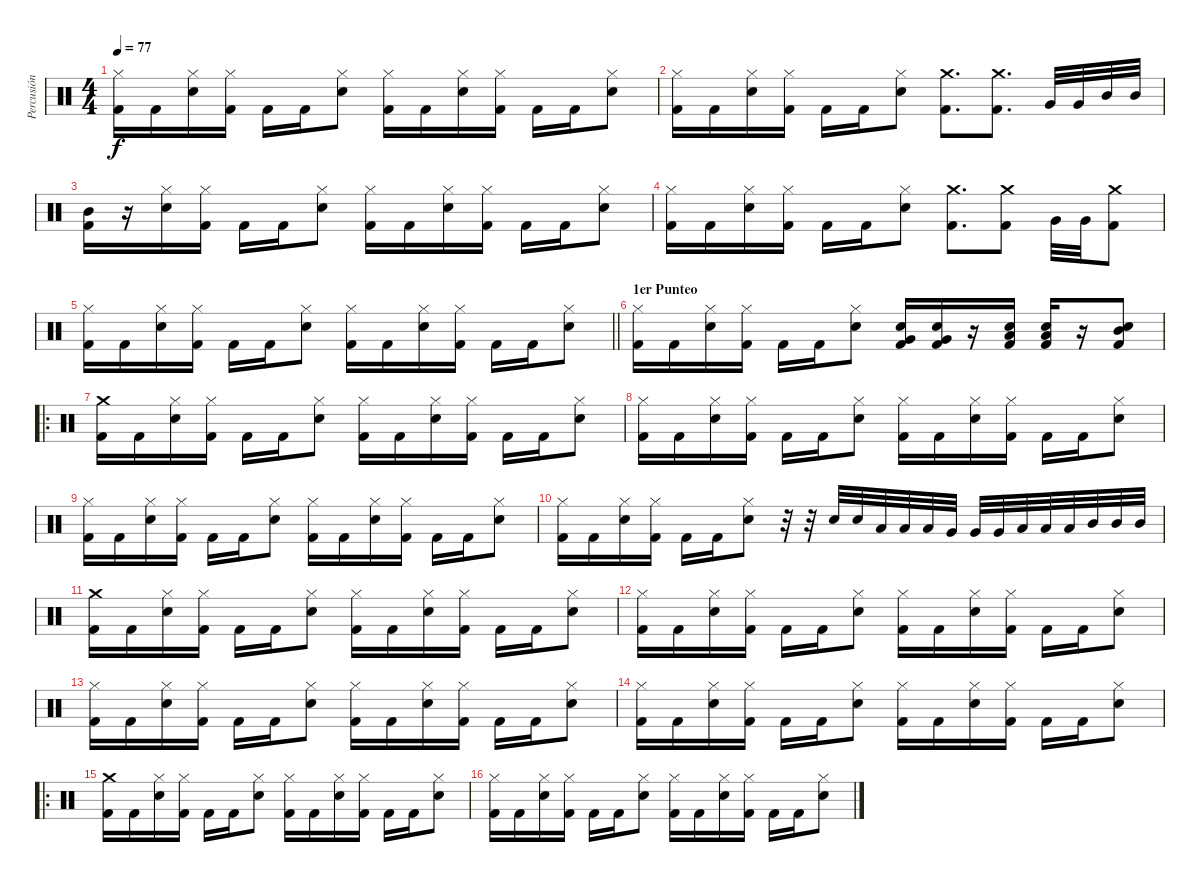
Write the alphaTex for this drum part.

\track ("Percusión" "Percusión") {instrument percussion}
\staff {score}
\articulation defaults
\ts (4 4)
\tempo 77
\clef neutral
\ks c
("Kick (hit) 2" "Hi-Hat (closed)").16{dy f} "Kick (hit) 2".16 ("Electric Snare (hit)" "Hi-Hat (closed)").16 ("Kick (hit) 2" "Hi-Hat (closed)").16 "Kick (hit) 2".16 "Kick (hit) 2".16 ("Electric Snare (hit)" "Hi-Hat (closed)").8 ("Kick (hit) 2" "Hi-Hat (closed)").16 "Kick (hit) 2".16 ("Electric Snare (hit)" "Hi-Hat (closed)").16 ("Kick (hit) 2" "Hi-Hat (closed)").16 "Kick (hit) 2".16 "Kick (hit) 2".16 ("Electric Snare (hit)" "Hi-Hat (closed)").8 |
("Kick (hit) 2" "Hi-Hat (closed)").16 "Kick (hit) 2".16 ("Electric Snare (hit)" "Hi-Hat (closed)").16 ("Kick (hit) 2" "Hi-Hat (closed)").16 "Kick (hit) 2".16 "Kick (hit) 2".16 ("Electric Snare (hit)" "Hi-Hat (closed)").8 ("Kick (hit) 2" "Crash medium (hit)").8{d} ("Kick (hit) 2" "Crash medium (hit)").8{d} "Very Low Tom (hit)".32 "Very Low Tom (hit)".32 "Mid Tom (hit)".32 "Mid Tom (hit)".32 |
("Kick (hit) 2" "Mid Tom (hit)").16 r.16 ("Electric Snare (hit)" "Hi-Hat (closed)").16 ("Kick (hit) 2" "Hi-Hat (closed)").16 "Kick (hit) 2".16 "Kick (hit) 2".16 ("Electric Snare (hit)" "Hi-Hat (closed)").8 ("Kick (hit) 2" "Hi-Hat (closed)").16 "Kick (hit) 2".16 ("Electric Snare (hit)" "Hi-Hat (closed)").16 ("Kick (hit) 2" "Hi-Hat (closed)").16 "Kick (hit) 2".16 "Kick (hit) 2".16 ("Electric Snare (hit)" "Hi-Hat (closed)").8 |
("Kick (hit) 2" "Hi-Hat (closed)").16 "Kick (hit) 2".16 ("Electric Snare (hit)" "Hi-Hat (closed)").16 ("Kick (hit) 2" "Hi-Hat (closed)").16 "Kick (hit) 2".16 "Kick (hit) 2".16 ("Electric Snare (hit)" "Hi-Hat (closed)").8 ("Kick (hit) 2" "Crash medium (hit)").8{d} ("Kick (hit) 2" "Crash medium (hit)").8 "Very Low Tom (hit)".32 "Very Low Tom (hit)".32 ("Kick (hit) 2" "Crash medium (hit)").8 |
\barLineRight lightlight
("Kick (hit) 2" "Hi-Hat (closed)").16 "Kick (hit) 2".16 ("Electric Snare (hit)" "Hi-Hat (closed)").16 ("Kick (hit) 2" "Hi-Hat (closed)").16 "Kick (hit) 2".16 "Kick (hit) 2".16 ("Electric Snare (hit)" "Hi-Hat (closed)").8 ("Kick (hit) 2" "Hi-Hat (closed)").16 "Kick (hit) 2".16 ("Electric Snare (hit)" "Hi-Hat (closed)").16 ("Kick (hit) 2" "Hi-Hat (closed)").16 "Kick (hit) 2".16 "Kick (hit) 2".16 ("Electric Snare (hit)" "Hi-Hat (closed)").8 |
\section ("" "1er Punteo")
("Kick (hit) 2" "Hi-Hat (closed)").16 "Kick (hit) 2".16 ("Electric Snare (hit)" "Hi-Hat (closed)").16 ("Kick (hit) 2" "Hi-Hat (closed)").16 "Kick (hit) 2".16 "Kick (hit) 2".16 ("Electric Snare (hit)" "Hi-Hat (closed)").8 ("Kick (hit) 2" "Electric Snare (hit)" "Very Low Tom (hit)").16 ("Kick (hit) 2" "Electric Snare (hit)" "Very Low Tom (hit)").16 r.16 ("Kick (hit) 2" "Electric Snare (hit)" "Low Tom (hit)").16 ("Kick (hit) 2" "Electric Snare (hit)" "Low Tom (hit)").16 r.16 ("Electric Snare (hit)" "Kick (hit) 2" "Mid Tom (hit)").8 |
\ro
("Kick (hit) 2" "Crash medium (hit)").16 "Kick (hit) 2".16 ("Electric Snare (hit)" "Hi-Hat (closed)").16 ("Kick (hit) 2" "Hi-Hat (closed)").16 "Kick (hit) 2".16 "Kick (hit) 2".16 ("Electric Snare (hit)" "Hi-Hat (closed)").8 ("Kick (hit) 2" "Hi-Hat (closed)").16 "Kick (hit) 2".16 ("Electric Snare (hit)" "Hi-Hat (closed)").16 ("Kick (hit) 2" "Hi-Hat (closed)").16 "Kick (hit) 2".16 "Kick (hit) 2".16 ("Electric Snare (hit)" "Hi-Hat (closed)").8 |
("Kick (hit) 2" "Hi-Hat (closed)").16 "Kick (hit) 2".16 ("Electric Snare (hit)" "Hi-Hat (closed)").16 ("Kick (hit) 2" "Hi-Hat (closed)").16 "Kick (hit) 2".16 "Kick (hit) 2".16 ("Electric Snare (hit)" "Hi-Hat (closed)").8 ("Kick (hit) 2" "Hi-Hat (closed)").16 "Kick (hit) 2".16 ("Electric Snare (hit)" "Hi-Hat (closed)").16 ("Kick (hit) 2" "Hi-Hat (closed)").16 "Kick (hit) 2".16 "Kick (hit) 2".16 ("Electric Snare (hit)" "Hi-Hat (closed)").8 |
("Kick (hit) 2" "Hi-Hat (closed)").16 "Kick (hit) 2".16 ("Electric Snare (hit)" "Hi-Hat (closed)").16 ("Kick (hit) 2" "Hi-Hat (closed)").16 "Kick (hit) 2".16 "Kick (hit) 2".16 ("Electric Snare (hit)" "Hi-Hat (closed)").8 ("Kick (hit) 2" "Hi-Hat (closed)").16 "Kick (hit) 2".16 ("Electric Snare (hit)" "Hi-Hat (closed)").16 ("Kick (hit) 2" "Hi-Hat (closed)").16 "Kick (hit) 2".16 "Kick (hit) 2".16 ("Electric Snare (hit)" "Hi-Hat (closed)").8 |
("Kick (hit) 2" "Hi-Hat (closed)").16 "Kick (hit) 2".16 ("Electric Snare (hit)" "Hi-Hat (closed)").16 ("Kick (hit) 2" "Hi-Hat (closed)").16 "Kick (hit) 2".16 "Kick (hit) 2".16 ("Electric Snare (hit)" "Hi-Hat (closed)").8 r.32 r.32 "Electric Snare (hit)".32 "Electric Snare (hit)".32 "Low Floor Tom (hit)".32 "Low Floor Tom (hit)".32 "Low Floor Tom (hit)".32 "Very Low Tom (hit)".32 "Very Low Tom (hit)".32 "Very Low Tom (hit)".32 "Low Tom (hit)".32 "Low Tom (hit)".32 "Low Tom (hit)".32 "Mid Tom (hit)".32 "Mid Tom (hit)".32 "Mid Tom (hit)".32 |
("Kick (hit) 2" "Crash medium (hit)").16 "Kick (hit) 2".16 ("Electric Snare (hit)" "Hi-Hat (closed)").16 ("Kick (hit) 2" "Hi-Hat (closed)").16 "Kick (hit) 2".16 "Kick (hit) 2".16 ("Electric Snare (hit)" "Hi-Hat (closed)").8 ("Kick (hit) 2" "Hi-Hat (closed)").16 "Kick (hit) 2".16 ("Electric Snare (hit)" "Hi-Hat (closed)").16 ("Kick (hit) 2" "Hi-Hat (closed)").16 "Kick (hit) 2".16 "Kick (hit) 2".16 ("Electric Snare (hit)" "Hi-Hat (closed)").8 |
("Kick (hit) 2" "Hi-Hat (closed)").16 "Kick (hit) 2".16 ("Electric Snare (hit)" "Hi-Hat (closed)").16 ("Kick (hit) 2" "Hi-Hat (closed)").16 "Kick (hit) 2".16 "Kick (hit) 2".16 ("Electric Snare (hit)" "Hi-Hat (closed)").8 ("Kick (hit) 2" "Hi-Hat (closed)").16 "Kick (hit) 2".16 ("Electric Snare (hit)" "Hi-Hat (closed)").16 ("Kick (hit) 2" "Hi-Hat (closed)").16 "Kick (hit) 2".16 "Kick (hit) 2".16 ("Electric Snare (hit)" "Hi-Hat (closed)").8 |
("Kick (hit) 2" "Hi-Hat (closed)").16 "Kick (hit) 2".16 ("Electric Snare (hit)" "Hi-Hat (closed)").16 ("Kick (hit) 2" "Hi-Hat (closed)").16 "Kick (hit) 2".16 "Kick (hit) 2".16 ("Electric Snare (hit)" "Hi-Hat (closed)").8 ("Kick (hit) 2" "Hi-Hat (closed)").16 "Kick (hit) 2".16 ("Electric Snare (hit)" "Hi-Hat (closed)").16 ("Kick (hit) 2" "Hi-Hat (closed)").16 "Kick (hit) 2".16 "Kick (hit) 2".16 ("Electric Snare (hit)" "Hi-Hat (closed)").8 |
("Kick (hit) 2" "Hi-Hat (closed)").16 "Kick (hit) 2".16 ("Electric Snare (hit)" "Hi-Hat (closed)").16 ("Kick (hit) 2" "Hi-Hat (closed)").16 "Kick (hit) 2".16 "Kick (hit) 2".16 ("Electric Snare (hit)" "Hi-Hat (closed)").8 ("Kick (hit) 2" "Hi-Hat (closed)").16 "Kick (hit) 2".16 ("Electric Snare (hit)" "Hi-Hat (closed)").16 ("Kick (hit) 2" "Hi-Hat (closed)").16 "Kick (hit) 2".16 "Kick (hit) 2".16 ("Electric Snare (hit)" "Hi-Hat (closed)").8 |
\ro
("Kick (hit) 2" "Crash medium (hit)").16 "Kick (hit) 2".16 ("Electric Snare (hit)" "Hi-Hat (closed)").16 ("Kick (hit) 2" "Hi-Hat (closed)").16 "Kick (hit) 2".16 "Kick (hit) 2".16 ("Electric Snare (hit)" "Hi-Hat (closed)").8 ("Kick (hit) 2" "Hi-Hat (closed)").16 "Kick (hit) 2".16 ("Electric Snare (hit)" "Hi-Hat (closed)").16 ("Kick (hit) 2" "Hi-Hat (closed)").16 "Kick (hit) 2".16 "Kick (hit) 2".16 ("Electric Snare (hit)" "Hi-Hat (closed)").8 |
("Kick (hit) 2" "Hi-Hat (closed)").16 "Kick (hit) 2".16 ("Electric Snare (hit)" "Hi-Hat (closed)").16 ("Kick (hit) 2" "Hi-Hat (closed)").16 "Kick (hit) 2".16 "Kick (hit) 2".16 ("Electric Snare (hit)" "Hi-Hat (closed)").8 ("Kick (hit) 2" "Hi-Hat (closed)").16 "Kick (hit) 2".16 ("Electric Snare (hit)" "Hi-Hat (closed)").16 ("Kick (hit) 2" "Hi-Hat (closed)").16 "Kick (hit) 2".16 "Kick (hit) 2".16 ("Electric Snare (hit)" "Hi-Hat (closed)").8
